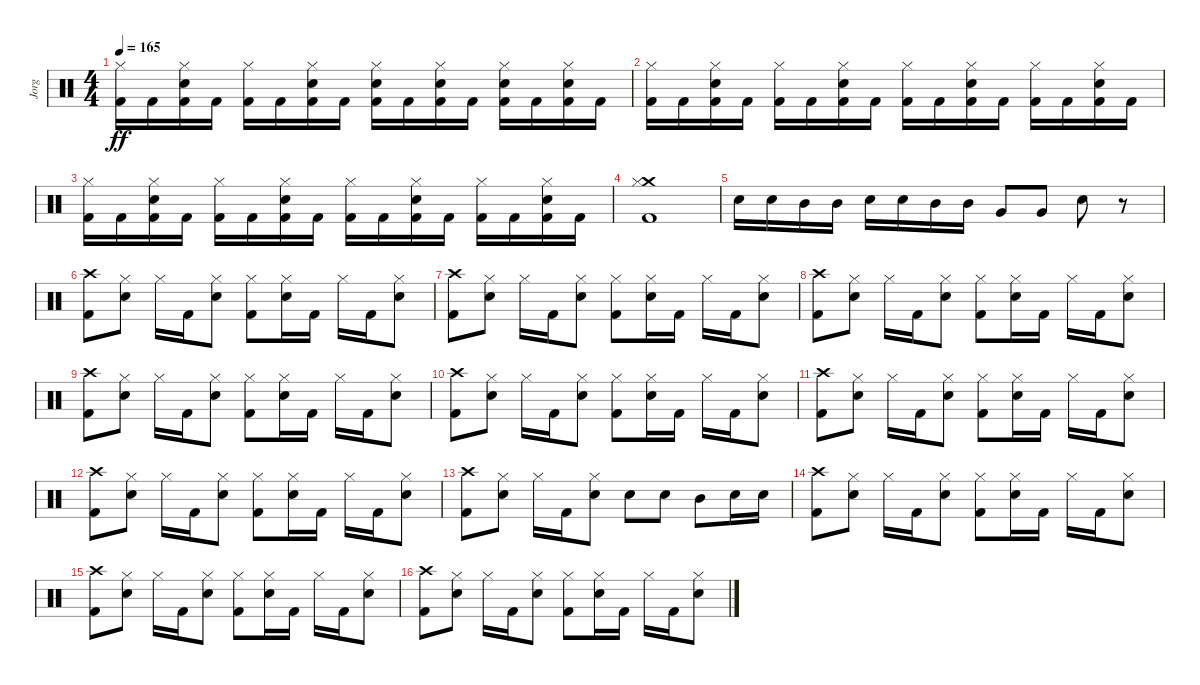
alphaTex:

\track ("Jorg" "Jorg") {instrument percussion}
\staff {score}
\articulation defaults
\ts (4 4)
\tempo 165
\clef neutral
\ks c
("Hi-Hat (closed)" "Kick (hit) 2").16{dy ff} "Kick (hit) 2".16 ("Hi-Hat (closed)" "Electric Snare (hit)" "Kick (hit) 2").16 "Kick (hit) 2".16 ("Hi-Hat (closed)" "Kick (hit) 2").16 "Kick (hit) 2".16 ("Hi-Hat (closed)" "Electric Snare (hit)" "Kick (hit) 2").16 "Kick (hit) 2".16 ("Hi-Hat (closed)" "Electric Snare (hit)" "Kick (hit) 2").16 "Kick (hit) 2".16 ("Hi-Hat (closed)" "Electric Snare (hit)" "Kick (hit) 2").16 "Kick (hit) 2".16 ("Hi-Hat (closed)" "Electric Snare (hit)" "Kick (hit) 2").16 "Kick (hit) 2".16 ("Hi-Hat (closed)" "Electric Snare (hit)" "Kick (hit) 2").16 "Kick (hit) 2".16 |
("Hi-Hat (closed)" "Kick (hit) 2").16 "Kick (hit) 2".16 ("Hi-Hat (closed)" "Electric Snare (hit)" "Kick (hit) 2").16 "Kick (hit) 2".16 ("Hi-Hat (closed)" "Kick (hit) 2").16 "Kick (hit) 2".16 ("Hi-Hat (closed)" "Electric Snare (hit)" "Kick (hit) 2").16 "Kick (hit) 2".16 ("Hi-Hat (closed)" "Kick (hit) 2").16 "Kick (hit) 2".16 ("Hi-Hat (closed)" "Electric Snare (hit)" "Kick (hit) 2").16 "Kick (hit) 2".16 ("Hi-Hat (closed)" "Kick (hit) 2").16 "Kick (hit) 2".16 ("Hi-Hat (closed)" "Electric Snare (hit)" "Kick (hit) 2").16 "Kick (hit) 2".16 |
("Hi-Hat (closed)" "Kick (hit) 2").16 "Kick (hit) 2".16 ("Hi-Hat (closed)" "Electric Snare (hit)" "Kick (hit) 2").16 "Kick (hit) 2".16 ("Hi-Hat (closed)" "Kick (hit) 2").16 "Kick (hit) 2".16 ("Hi-Hat (closed)" "Electric Snare (hit)" "Kick (hit) 2").16 "Kick (hit) 2".16 ("Hi-Hat (closed)" "Kick (hit) 2").16 "Kick (hit) 2".16 ("Hi-Hat (closed)" "Electric Snare (hit)" "Kick (hit) 2").16 "Kick (hit) 2".16 ("Hi-Hat (closed)" "Kick (hit) 2").16 "Kick (hit) 2".16 ("Hi-Hat (closed)" "Electric Snare (hit)" "Kick (hit) 2").16 "Kick (hit) 2".16 |
("Crash medium (hit)" "Hi-Hat (closed)" "Kick (hit) 2").1 |
"Electric Snare (hit)".16 "Electric Snare (hit)".16 "Mid Tom (hit)".16 "Mid Tom (hit)".16 "Electric Snare (hit)".16 "Electric Snare (hit)".16 "Mid Tom (hit)".16 "Mid Tom (hit)".16 "Very Low Tom (hit)".8 "Very Low Tom (hit)".8 "Electric Snare (hit)".8 r.8 |
("Kick (hit) 2" "Crash high (hit)").8 ("Snare (hit) 2" "Hi-Hat (closed)").8 "Hi-Hat (closed)".16 "Kick (hit) 2".16 ("Snare (hit) 2" "Hi-Hat (closed)").8 ("Kick (hit) 2" "Hi-Hat (closed)").8 ("Snare (hit) 2" "Hi-Hat (closed)").16 "Kick (hit) 2".16 "Hi-Hat (closed)".16 "Kick (hit) 2".16 ("Snare (hit) 2" "Hi-Hat (closed)").8 |
("Kick (hit) 2" "Crash high (hit)").8 ("Snare (hit) 2" "Hi-Hat (closed)").8 "Hi-Hat (closed)".16 "Kick (hit) 2".16 ("Snare (hit) 2" "Hi-Hat (closed)").8 ("Kick (hit) 2" "Hi-Hat (closed)").8 ("Snare (hit) 2" "Hi-Hat (closed)").16 "Kick (hit) 2".16 "Hi-Hat (closed)".16 "Kick (hit) 2".16 ("Snare (hit) 2" "Hi-Hat (closed)").8 |
("Kick (hit) 2" "Crash high (hit)").8 ("Snare (hit) 2" "Hi-Hat (closed)").8 "Hi-Hat (closed)".16 "Kick (hit) 2".16 ("Snare (hit) 2" "Hi-Hat (closed)").8 ("Kick (hit) 2" "Hi-Hat (closed)").8 ("Snare (hit) 2" "Hi-Hat (closed)").16 "Kick (hit) 2".16 "Hi-Hat (closed)".16 "Kick (hit) 2".16 ("Snare (hit) 2" "Hi-Hat (closed)").8 |
("Kick (hit) 2" "Crash high (hit)").8 ("Snare (hit) 2" "Hi-Hat (closed)").8 "Hi-Hat (closed)".16 "Kick (hit) 2".16 ("Snare (hit) 2" "Hi-Hat (closed)").8 ("Kick (hit) 2" "Hi-Hat (closed)").8 ("Snare (hit) 2" "Hi-Hat (closed)").16 "Kick (hit) 2".16 "Hi-Hat (closed)".16 "Kick (hit) 2".16 ("Snare (hit) 2" "Hi-Hat (closed)").8 |
("Kick (hit) 2" "Crash high (hit)").8 ("Snare (hit) 2" "Hi-Hat (closed)").8 "Hi-Hat (closed)".16 "Kick (hit) 2".16 ("Snare (hit) 2" "Hi-Hat (closed)").8 ("Kick (hit) 2" "Hi-Hat (closed)").8 ("Snare (hit) 2" "Hi-Hat (closed)").16 "Kick (hit) 2".16 "Hi-Hat (closed)".16 "Kick (hit) 2".16 ("Snare (hit) 2" "Hi-Hat (closed)").8 |
("Kick (hit) 2" "Crash high (hit)").8 ("Snare (hit) 2" "Hi-Hat (closed)").8 "Hi-Hat (closed)".16 "Kick (hit) 2".16 ("Snare (hit) 2" "Hi-Hat (closed)").8 ("Kick (hit) 2" "Hi-Hat (closed)").8 ("Snare (hit) 2" "Hi-Hat (closed)").16 "Kick (hit) 2".16 "Hi-Hat (closed)".16 "Kick (hit) 2".16 ("Snare (hit) 2" "Hi-Hat (closed)").8 |
("Kick (hit) 2" "Crash high (hit)").8 ("Snare (hit) 2" "Hi-Hat (closed)").8 "Hi-Hat (closed)".16 "Kick (hit) 2".16 ("Snare (hit) 2" "Hi-Hat (closed)").8 ("Kick (hit) 2" "Hi-Hat (closed)").8 ("Snare (hit) 2" "Hi-Hat (closed)").16 "Kick (hit) 2".16 "Hi-Hat (closed)".16 "Kick (hit) 2".16 ("Snare (hit) 2" "Hi-Hat (closed)").8 |
("Kick (hit) 2" "Crash high (hit)").8 ("Snare (hit) 2" "Hi-Hat (closed)").8 "Hi-Hat (closed)".16 "Kick (hit) 2".16 ("Snare (hit) 2" "Hi-Hat (closed)").8 "Electric Snare (hit)".8 "Electric Snare (hit)".8 "Mid Tom (hit)".8 "Electric Snare (hit)".16 "Electric Snare (hit)".16 |
("Kick (hit) 2" "Crash high (hit)").8 ("Snare (hit) 2" "Hi-Hat (closed)").8 "Hi-Hat (closed)".16 "Kick (hit) 2".16 ("Snare (hit) 2" "Hi-Hat (closed)").8 ("Kick (hit) 2" "Hi-Hat (closed)").8 ("Snare (hit) 2" "Hi-Hat (closed)").16 "Kick (hit) 2".16 "Hi-Hat (closed)".16 "Kick (hit) 2".16 ("Snare (hit) 2" "Hi-Hat (closed)").8 |
("Kick (hit) 2" "Crash high (hit)").8 ("Snare (hit) 2" "Hi-Hat (closed)").8 "Hi-Hat (closed)".16 "Kick (hit) 2".16 ("Snare (hit) 2" "Hi-Hat (closed)").8 ("Kick (hit) 2" "Hi-Hat (closed)").8 ("Snare (hit) 2" "Hi-Hat (closed)").16 "Kick (hit) 2".16 "Hi-Hat (closed)".16 "Kick (hit) 2".16 ("Snare (hit) 2" "Hi-Hat (closed)").8 |
("Kick (hit) 2" "Crash high (hit)").8 ("Snare (hit) 2" "Hi-Hat (closed)").8 "Hi-Hat (closed)".16 "Kick (hit) 2".16 ("Snare (hit) 2" "Hi-Hat (closed)").8 ("Kick (hit) 2" "Hi-Hat (closed)").8 ("Snare (hit) 2" "Hi-Hat (closed)").16 "Kick (hit) 2".16 "Hi-Hat (closed)".16 "Kick (hit) 2".16 ("Snare (hit) 2" "Hi-Hat (closed)").8
